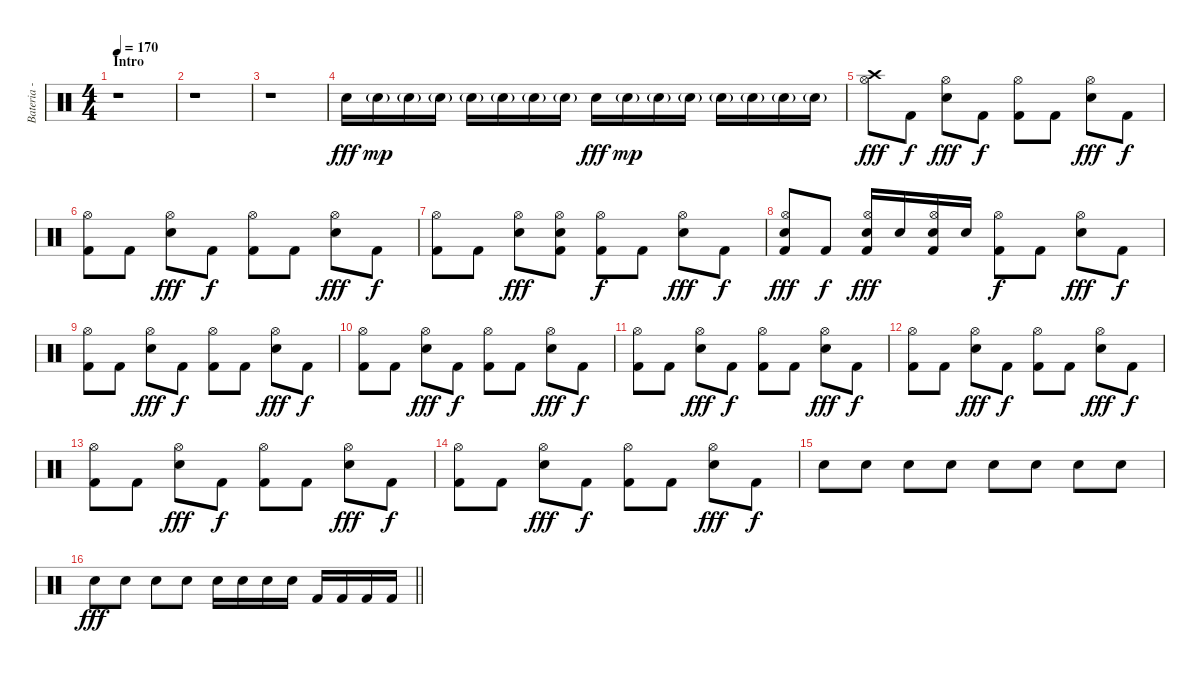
\track ("Bateria - Larzon" "Bateria - ") {instrument percussion}
\staff {score}
\articulation defaults
\ts (4 4)
\section ("" "Intro")
\tempo 170
\clef neutral
\ks c
r.1{dy fff} |
r.1 |
r.1 |
"Snare (hit) 2".16 "Snare (hit) 2"{g}.16{dy mp} "Snare (hit) 2"{g}.16 "Snare (hit) 2"{g}.16 "Snare (hit) 2"{g}.16 "Snare (hit) 2"{g}.16 "Snare (hit) 2"{g}.16 "Snare (hit) 2"{g}.16 "Snare (hit) 2".16{dy fff} "Snare (hit) 2"{g}.16{dy mp} "Snare (hit) 2"{g}.16 "Snare (hit) 2"{g}.16 "Snare (hit) 2"{g}.16 "Snare (hit) 2"{g}.16 "Snare (hit) 2"{g}.16 "Snare (hit) 2"{g}.16 |
("Crash high (hit)" "Hi-Hat (open)").8{dy fff} "Kick (hit) 2".8{dy f} ("Hi-Hat (open)" "Snare (hit) 2").8{dy fff} "Kick (hit) 2".8{dy f} ("Kick (hit) 2" "Hi-Hat (open)").8 "Kick (hit) 2".8 ("Hi-Hat (open)" "Snare (hit) 2").8{dy fff} "Kick (hit) 2".8{dy f} |
("Kick (hit) 2" "Hi-Hat (open)").8 "Kick (hit) 2".8 ("Hi-Hat (open)" "Snare (hit) 2").8{dy fff} "Kick (hit) 2".8{dy f} ("Kick (hit) 2" "Hi-Hat (open)").8 "Kick (hit) 2".8 ("Hi-Hat (open)" "Snare (hit) 2").8{dy fff} "Kick (hit) 2".8{dy f} |
("Kick (hit) 2" "Hi-Hat (open)").8 "Kick (hit) 2".8 ("Hi-Hat (open)" "Snare (hit) 2").8{dy fff} ("Kick (hit) 2" "Hi-Hat (open)" "Snare (hit) 2").8 ("Kick (hit) 2" "Hi-Hat (open)").8{dy f} "Kick (hit) 2".8 ("Hi-Hat (open)" "Snare (hit) 2").8{dy fff} "Kick (hit) 2".8{dy f} |
("Kick (hit) 2" "Hi-Hat (open)" "Snare (hit) 2").8{dy fff} "Kick (hit) 2".8{dy f} ("Kick (hit) 2" "Hi-Hat (open)" "Snare (hit) 2").16{dy fff} "Snare (hit) 2".16 ("Kick (hit) 2" "Hi-Hat (open)" "Snare (hit) 2").16 "Snare (hit) 2".16 ("Kick (hit) 2" "Hi-Hat (open)").8{dy f} "Kick (hit) 2".8 ("Hi-Hat (open)" "Snare (hit) 2").8{dy fff} "Kick (hit) 2".8{dy f} |
("Kick (hit) 2" "Hi-Hat (open)").8 "Kick (hit) 2".8 ("Hi-Hat (open)" "Snare (hit) 2").8{dy fff} "Kick (hit) 2".8{dy f} ("Kick (hit) 2" "Hi-Hat (open)").8 "Kick (hit) 2".8 ("Hi-Hat (open)" "Snare (hit) 2").8{dy fff} "Kick (hit) 2".8{dy f} |
("Kick (hit) 2" "Hi-Hat (open)").8 "Kick (hit) 2".8 ("Hi-Hat (open)" "Snare (hit) 2").8{dy fff} "Kick (hit) 2".8{dy f} ("Kick (hit) 2" "Hi-Hat (open)").8 "Kick (hit) 2".8 ("Hi-Hat (open)" "Snare (hit) 2").8{dy fff} "Kick (hit) 2".8{dy f} |
("Kick (hit) 2" "Hi-Hat (open)").8 "Kick (hit) 2".8 ("Hi-Hat (open)" "Snare (hit) 2").8{dy fff} "Kick (hit) 2".8{dy f} ("Kick (hit) 2" "Hi-Hat (open)").8 "Kick (hit) 2".8 ("Hi-Hat (open)" "Snare (hit) 2").8{dy fff} "Kick (hit) 2".8{dy f} |
("Kick (hit) 2" "Hi-Hat (open)").8 "Kick (hit) 2".8 ("Hi-Hat (open)" "Snare (hit) 2").8{dy fff} "Kick (hit) 2".8{dy f} ("Kick (hit) 2" "Hi-Hat (open)").8 "Kick (hit) 2".8 ("Hi-Hat (open)" "Snare (hit) 2").8{dy fff} "Kick (hit) 2".8{dy f} |
("Kick (hit) 2" "Hi-Hat (open)").8 "Kick (hit) 2".8 ("Hi-Hat (open)" "Snare (hit) 2").8{dy fff} "Kick (hit) 2".8{dy f} ("Kick (hit) 2" "Hi-Hat (open)").8 "Kick (hit) 2".8 ("Hi-Hat (open)" "Snare (hit) 2").8{dy fff} "Kick (hit) 2".8{dy f} |
("Kick (hit) 2" "Hi-Hat (open)").8 "Kick (hit) 2".8 ("Hi-Hat (open)" "Snare (hit) 2").8{dy fff} "Kick (hit) 2".8{dy f} ("Kick (hit) 2" "Hi-Hat (open)").8 "Kick (hit) 2".8 ("Hi-Hat (open)" "Snare (hit) 2").8{dy fff} "Kick (hit) 2".8{dy f} |
"Snare (hit) 2".8 "Snare (hit) 2".8 "Snare (hit) 2".8 "Snare (hit) 2".8 "Snare (hit) 2".8 "Snare (hit) 2".8 "Snare (hit) 2".8 "Snare (hit) 2".8 |
\barLineRight lightlight "Snare (hit) 2".8{dy fff} "Snare (hit) 2".8 "Snare (hit) 2".8 "Snare (hit) 2".8 "Snare (hit) 2".16 "Snare (hit) 2".16 "Snare (hit) 2".16 "Snare (hit) 2".16 "Kick (hit) 2".16 "Kick (hit) 2".16 "Kick (hit) 2".16 "Kick (hit) 2".16
